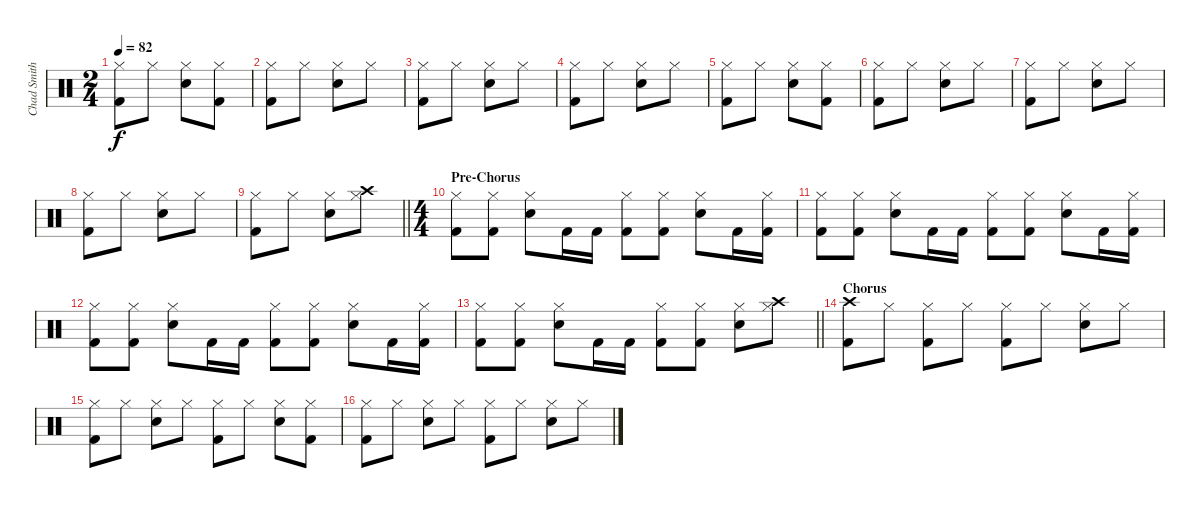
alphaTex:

\track ("Chad Smith Drum" "Chad Smith") {instrument percussion}
\staff {score}
\articulation defaults
\ts (2 4)
\tempo 82
\clef neutral
\ks c
("Kick (hit) 2" "Hi-Hat (closed)").8{dy f} "Hi-Hat (closed)".8 ("Snare (hit) 2" "Hi-Hat (closed)").8 ("Kick (hit) 2" "Hi-Hat (closed)").8 |
("Kick (hit) 2" "Hi-Hat (closed)").8 "Hi-Hat (closed)".8 ("Snare (hit) 2" "Hi-Hat (closed)").8 "Hi-Hat (closed)".8 |
("Kick (hit) 2" "Hi-Hat (closed)").8 "Hi-Hat (closed)".8 ("Snare (hit) 2" "Hi-Hat (closed)").8 "Hi-Hat (closed)".8 |
("Kick (hit) 2" "Hi-Hat (closed)").8 "Hi-Hat (closed)".8 ("Snare (hit) 2" "Hi-Hat (closed)").8 "Hi-Hat (closed)".8 |
("Kick (hit) 2" "Hi-Hat (closed)").8 "Hi-Hat (closed)".8 ("Snare (hit) 2" "Hi-Hat (closed)").8 ("Kick (hit) 2" "Hi-Hat (closed)").8 |
("Kick (hit) 2" "Hi-Hat (closed)").8 "Hi-Hat (closed)".8 ("Snare (hit) 2" "Hi-Hat (closed)").8 "Hi-Hat (closed)".8 |
("Kick (hit) 2" "Hi-Hat (closed)").8 "Hi-Hat (closed)".8 ("Snare (hit) 2" "Hi-Hat (closed)").8 "Hi-Hat (closed)".8 |
("Kick (hit) 2" "Hi-Hat (closed)").8 "Hi-Hat (closed)".8 ("Snare (hit) 2" "Hi-Hat (closed)").8 "Hi-Hat (closed)".8 |
\barLineRight lightlight
("Kick (hit) 2" "Hi-Hat (closed)").8 "Hi-Hat (closed)".8 ("Snare (hit) 2" "Hi-Hat (closed)").8 ("Crash high (hit)" "Hi-Hat (closed)").8 |
\ts (4 4)
\section ("" "Pre-Chorus")
("Kick (hit) 2" "Hi-Hat (closed)").8 ("Kick (hit) 2" "Hi-Hat (closed)").8 ("Snare (hit) 2" "Hi-Hat (closed)").8 "Kick (hit) 2".16 "Kick (hit) 2".16 ("Kick (hit) 2" "Hi-Hat (closed)").8 ("Kick (hit) 2" "Hi-Hat (closed)").8 ("Snare (hit) 2" "Hi-Hat (closed)").8 "Kick (hit) 2".16 ("Kick (hit) 2" "Hi-Hat (closed)").16 |
("Kick (hit) 2" "Hi-Hat (closed)").8 ("Kick (hit) 2" "Hi-Hat (closed)").8 ("Snare (hit) 2" "Hi-Hat (closed)").8 "Kick (hit) 2".16 "Kick (hit) 2".16 ("Kick (hit) 2" "Hi-Hat (closed)").8 ("Kick (hit) 2" "Hi-Hat (closed)").8 ("Snare (hit) 2" "Hi-Hat (closed)").8 "Kick (hit) 2".16 ("Kick (hit) 2" "Hi-Hat (closed)").16 |
("Kick (hit) 2" "Hi-Hat (closed)").8 ("Kick (hit) 2" "Hi-Hat (closed)").8 ("Snare (hit) 2" "Hi-Hat (closed)").8 "Kick (hit) 2".16 "Kick (hit) 2".16 ("Kick (hit) 2" "Hi-Hat (closed)").8 ("Kick (hit) 2" "Hi-Hat (closed)").8 ("Snare (hit) 2" "Hi-Hat (closed)").8 "Kick (hit) 2".16 ("Kick (hit) 2" "Hi-Hat (closed)").16 |
\barLineRight lightlight
("Kick (hit) 2" "Hi-Hat (closed)").8 ("Kick (hit) 2" "Hi-Hat (closed)").8 ("Snare (hit) 2" "Hi-Hat (closed)").8 "Kick (hit) 2".16 "Kick (hit) 2".16 ("Kick (hit) 2" "Hi-Hat (closed)").8 ("Kick (hit) 2" "Hi-Hat (closed)").8 ("Snare (hit) 2" "Hi-Hat (closed)").8 ("Crash high (hit)" "Hi-Hat (closed)").8 |
\section ("" "Chorus")
("Crash high (hit)" "Kick (hit) 2").8 "Hi-Hat (closed)".8 ("Kick (hit) 2" "Hi-Hat (closed)").8 "Hi-Hat (closed)".8 ("Kick (hit) 2" "Hi-Hat (closed)").8 "Hi-Hat (closed)".8 ("Snare (hit) 2" "Hi-Hat (closed)").8 "Hi-Hat (closed)".8 |
("Kick (hit) 2" "Hi-Hat (closed)").8 "Hi-Hat (closed)".8 ("Snare (hit) 2" "Hi-Hat (closed)").8 "Hi-Hat (closed)".8 ("Kick (hit) 2" "Hi-Hat (closed)").8 "Hi-Hat (closed)".8 ("Snare (hit) 2" "Hi-Hat (closed)").8 ("Kick (hit) 2" "Hi-Hat (closed)").8 |
("Kick (hit) 2" "Hi-Hat (closed)").8 "Hi-Hat (closed)".8 ("Snare (hit) 2" "Hi-Hat (closed)").8 "Hi-Hat (closed)".8 ("Kick (hit) 2" "Hi-Hat (closed)").8 "Hi-Hat (closed)".8 ("Snare (hit) 2" "Hi-Hat (closed)").8 "Hi-Hat (closed)".8
